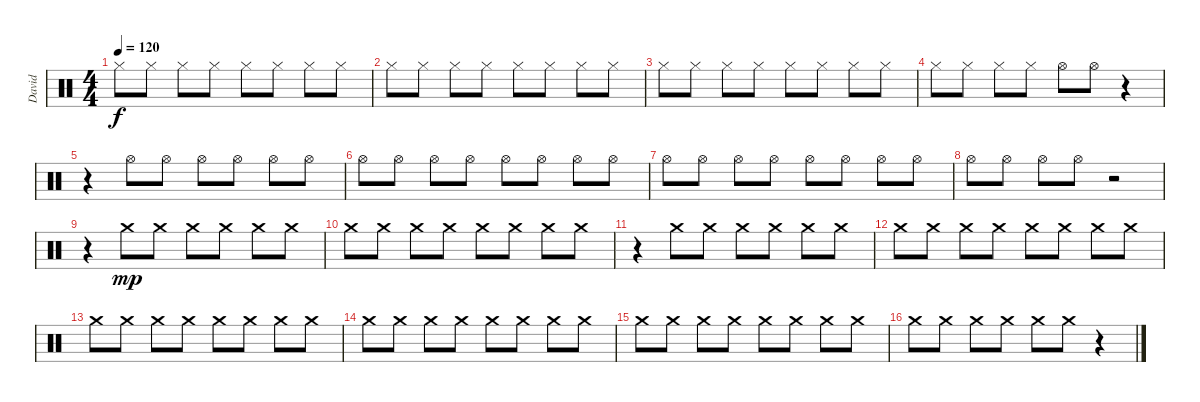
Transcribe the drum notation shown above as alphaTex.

\track ("David" "David") {instrument percussion}
\staff {score}
\articulation defaults
\ts (4 4)
\tempo 120
\clef neutral
\ks c "Hi-Hat (closed)".8{dy f} "Hi-Hat (closed)".8 "Hi-Hat (closed)".8 "Hi-Hat (closed)".8 "Hi-Hat (closed)".8 "Hi-Hat (closed)".8 "Hi-Hat (closed)".8 "Hi-Hat (closed)".8
|
"Hi-Hat (closed)".8 "Hi-Hat (closed)".8 "Hi-Hat (closed)".8 "Hi-Hat (closed)".8 "Hi-Hat (closed)".8 "Hi-Hat (closed)".8 "Hi-Hat (closed)".8 "Hi-Hat (closed)".8 |
"Hi-Hat (closed)".8 "Hi-Hat (closed)".8 "Hi-Hat (closed)".8 "Hi-Hat (closed)".8 "Hi-Hat (closed)".8 "Hi-Hat (closed)".8 "Hi-Hat (closed)".8 "Hi-Hat (closed)".8 |
"Hi-Hat (closed)".8 "Hi-Hat (closed)".8 "Hi-Hat (closed)".8 "Hi-Hat (closed)".8 "Hi-Hat (open)".8 "Hi-Hat (open)".8 r.4 |
r.4 "Hi-Hat (open)".8 "Hi-Hat (open)".8 "Hi-Hat (open)".8 "Hi-Hat (open)".8 "Hi-Hat (open)".8 "Hi-Hat (open)".8 |
"Hi-Hat (open)".8 "Hi-Hat (open)".8 "Hi-Hat (open)".8 "Hi-Hat (open)".8 "Hi-Hat (open)".8 "Hi-Hat (open)".8 "Hi-Hat (open)".8 "Hi-Hat (open)".8 |
"Hi-Hat (open)".8 "Hi-Hat (open)".8 "Hi-Hat (open)".8 "Hi-Hat (open)".8 "Hi-Hat (open)".8 "Hi-Hat (open)".8 "Hi-Hat (open)".8 "Hi-Hat (open)".8 |
"Hi-Hat (open)".8 "Hi-Hat (open)".8 "Hi-Hat (open)".8 "Hi-Hat (open)".8 r.2 |
r.4 "Crash medium (hit)".8{dy mp} "Crash medium (hit)".8 "Crash medium (hit)".8 "Crash medium (hit)".8 "Crash medium (hit)".8 "Crash medium (hit)".8 |
"Crash medium (hit)".8 "Crash medium (hit)".8 "Crash medium (hit)".8 "Crash medium (hit)".8 "Crash medium (hit)".8 "Crash medium (hit)".8 "Crash medium (hit)".8 "Crash medium (hit)".8 |
r.4 "Crash medium (hit)".8 "Crash medium (hit)".8 "Crash medium (hit)".8 "Crash medium (hit)".8 "Crash medium (hit)".8 "Crash medium (hit)".8 |
"Crash medium (hit)".8 "Crash medium (hit)".8 "Crash medium (hit)".8 "Crash medium (hit)".8 "Crash medium (hit)".8 "Crash medium (hit)".8 "Crash medium (hit)".8 "Crash medium (hit)".8 |
"Crash medium (hit)".8 "Crash medium (hit)".8 "Crash medium (hit)".8 "Crash medium (hit)".8 "Crash medium (hit)".8 "Crash medium (hit)".8 "Crash medium (hit)".8 "Crash medium (hit)".8 |
"Crash medium (hit)".8 "Crash medium (hit)".8 "Crash medium (hit)".8 "Crash medium (hit)".8 "Crash medium (hit)".8 "Crash medium (hit)".8 "Crash medium (hit)".8 "Crash medium (hit)".8 |
"Crash medium (hit)".8 "Crash medium (hit)".8 "Crash medium (hit)".8 "Crash medium (hit)".8 "Crash medium (hit)".8 "Crash medium (hit)".8 "Crash medium (hit)".8 "Crash medium (hit)".8 |
"Crash medium (hit)".8 "Crash medium (hit)".8 "Crash medium (hit)".8 "Crash medium (hit)".8 "Crash medium (hit)".8 "Crash medium (hit)".8 r.4
